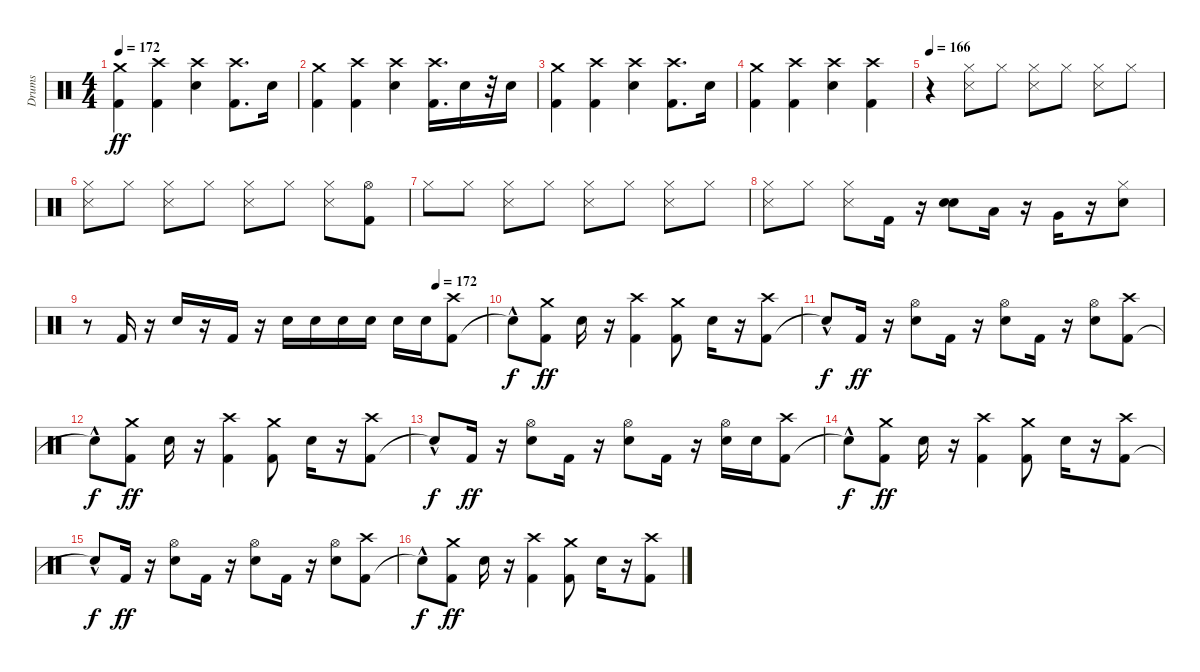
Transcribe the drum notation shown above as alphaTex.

\track ("Drums" "Drums") {instrument percussion}
\staff {score}
\articulation defaults
\ts (4 4)
\tempo 172
\clef neutral
\ks c
("Kick (hit) 2" "Crash medium (hit)").4{dy ff} ("Kick (hit) 2" "Crash high (hit)").4 ("Electric Snare (hit)" "Crash high (hit)").4 ("Kick (hit) 2" "Crash high (hit)").8{d} "Electric Snare (hit)".16 |
("Kick (hit) 2" "Crash medium (hit)").4 ("Kick (hit) 2" "Crash high (hit)").4 ("Electric Snare (hit)" "Crash high (hit)").4 ("Kick (hit) 2" "Crash high (hit)").16{d} "Electric Snare (hit)".16 r.32 "Electric Snare (hit)".16 |
("Kick (hit) 2" "Crash medium (hit)").4 ("Kick (hit) 2" "Crash high (hit)").4 ("Electric Snare (hit)" "Crash high (hit)").4 ("Kick (hit) 2" "Crash high (hit)").8{d} "Electric Snare (hit)".16 |
("Kick (hit) 2" "Crash medium (hit)").4 ("Kick (hit) 2" "Crash high (hit)").4 ("Electric Snare (hit)" "Crash high (hit)").4 ("Kick (hit) 2" "Crash high (hit)").4 |
\tempo 166
r.4 ("Hi-Hat (closed)" "Snare (side stick) 3").8 "Hi-Hat (closed)".8 ("Snare (side stick) 3" "Hi-Hat (closed)").8 "Hi-Hat (closed)".8 ("Snare (side stick) 3" "Hi-Hat (closed)").8 "Hi-Hat (closed)".8 |
("Hi-Hat (closed)" "Snare (side stick) 3").8 "Hi-Hat (closed)".8 ("Hi-Hat (closed)" "Snare (side stick) 3").8 "Hi-Hat (closed)".8 ("Hi-Hat (closed)" "Snare (side stick) 3").8 "Hi-Hat (closed)".8 ("Hi-Hat (closed)" "Snare (side stick) 3").8 ("Hi-Hat (open)" "Kick (hit) 2").8 |
"Hi-Hat (closed)".8 "Hi-Hat (closed)".8 ("Hi-Hat (closed)" "Snare (side stick) 3").8 "Hi-Hat (closed)".8 ("Hi-Hat (closed)" "Snare (side stick) 3").8 "Hi-Hat (closed)".8 ("Hi-Hat (closed)" "Snare (side stick) 3").8 "Hi-Hat (closed)".8 |
("Hi-Hat (closed)" "Snare (side stick) 3").8 "Hi-Hat (closed)".8 ("Hi-Hat (closed)" "Snare (side stick) 3").8 "Kick (hit) 2".16 r.16 ("Electric Snare (hit)" "Electric Snare (hit)").8 "Low Tom (hit)".16 r.16 "Very Low Tom (hit)".16 r.16 ("Electric Snare (hit)" "Hi-Hat (closed)").8 |
\tempo (172 0.875)
r.8 "Kick (hit) 2".16 r.16 "Electric Snare (hit)".16 r.16 "Kick (hit) 2".16 r.16 "Electric Snare (hit)".16 "Electric Snare (hit)".16 "Electric Snare (hit)".16 "Electric Snare (hit)".16 "Electric Snare (hit)".16 "Electric Snare (hit)".16 ("Kick (hit) 2" "Crash high (hit)").8 |
"Snare (hit)"{hac t}.8{dy f} ("Kick (hit) 2" "Crash medium (hit)").8{dy ff} "Electric Snare (hit)".16 r.16 ("Kick (hit) 2" "Crash high (hit)").4 ("Kick (hit) 2" "Crash medium (hit)").8 "Electric Snare (hit)".16 r.16 ("Kick (hit) 2" "Crash high (hit)").8 |
"Snare (hit)"{hac t}.8{dy f} "Kick (hit) 2".16{dy ff} r.16 ("Electric Snare (hit)" "Hi-Hat (open)").8 "Kick (hit) 2".16 r.16 ("Electric Snare (hit)" "Hi-Hat (open)").8 "Kick (hit) 2".16 r.16 ("Electric Snare (hit)" "Hi-Hat (open)").8 ("Kick (hit) 2" "Crash high (hit)").8 |
"Snare (hit)"{hac t}.8{dy f} ("Kick (hit) 2" "Crash medium (hit)").8{dy ff} "Electric Snare (hit)".16 r.16 ("Kick (hit) 2" "Crash high (hit)").4 ("Kick (hit) 2" "Crash medium (hit)").8 "Electric Snare (hit)".16 r.16 ("Kick (hit) 2" "Crash high (hit)").8 |
"Snare (hit)"{hac t}.8{dy f} "Kick (hit) 2".16{dy ff} r.16 ("Electric Snare (hit)" "Hi-Hat (open)").8 "Kick (hit) 2".16 r.16 ("Electric Snare (hit)" "Hi-Hat (open)").8 "Kick (hit) 2".16 r.16 ("Electric Snare (hit)" "Hi-Hat (open)").16 "Electric Snare (hit)".16 ("Kick (hit) 2" "Crash high (hit)").8 |
"Snare (hit)"{hac t}.8{dy f} ("Kick (hit) 2" "Crash medium (hit)").8{dy ff} "Electric Snare (hit)".16 r.16 ("Kick (hit) 2" "Crash high (hit)").4 ("Kick (hit) 2" "Crash medium (hit)").8 "Electric Snare (hit)".16 r.16 ("Kick (hit) 2" "Crash high (hit)").8 |
"Snare (hit)"{hac t}.8{dy f} "Kick (hit) 2".16{dy ff} r.16 ("Electric Snare (hit)" "Hi-Hat (open)").8 "Kick (hit) 2".16 r.16 ("Electric Snare (hit)" "Hi-Hat (open)").8 "Kick (hit) 2".16 r.16 ("Electric Snare (hit)" "Hi-Hat (open)").8 ("Kick (hit) 2" "Crash high (hit)").8 |
"Snare (hit)"{hac t}.8{dy f} ("Kick (hit) 2" "Crash medium (hit)").8{dy ff} "Electric Snare (hit)".16 r.16 ("Kick (hit) 2" "Crash high (hit)").4 ("Kick (hit) 2" "Crash medium (hit)").8 "Electric Snare (hit)".16 r.16 ("Kick (hit) 2" "Crash high (hit)").8
